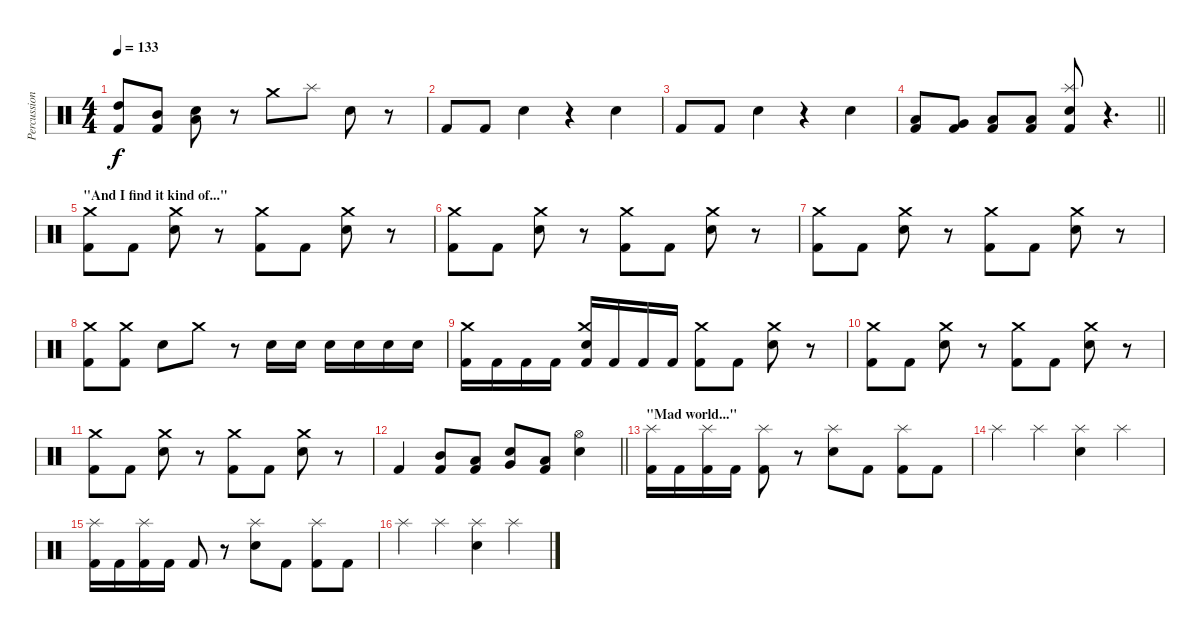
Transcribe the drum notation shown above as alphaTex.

\track ("Percussion" "Percussion") {instrument percussion}
\staff {score}
\articulation defaults
\ts (4 4)
\tempo 133
\clef neutral
\ks c
("High Tom (hit)" "Kick (hit) 2").8{dy f} ("Mid Tom (hit)" "Kick (hit) 2").8 ("Low Tom (hit)" "Electric Snare (hit)").8 r.8 "Crash medium (hit)".8 "Splash (hit)".8 "Electric Snare (hit)".8 r.8 |
"Kick (hit) 2".8 "Kick (hit) 2".8 "Electric Snare (hit)".4 r.4 "Electric Snare (hit)".4 |
"Kick (hit) 2".8 "Kick (hit) 2".8 "Electric Snare (hit)".4 r.4 "Electric Snare (hit)".4 |
\barLineRight lightlight
("Low Tom (hit)" "Kick (hit) 2").8 ("Very Low Tom (hit)" "Kick (hit) 2").8 ("Low Floor Tom (hit)" "Kick (hit) 2").8 ("Low Floor Tom (hit)" "Kick (hit) 2").8 ("Splash (hit)" "Snare (hit) 2" "Kick (hit) 2").8 r.4{d} |
\section ("" "\"And I find it kind of...\"")
("Crash medium (hit)" "Kick (hit) 2").8 "Kick (hit) 2".8 ("Crash medium (hit)" "Snare (hit) 2").8 r.8 ("Crash medium (hit)" "Kick (hit) 2").8 "Kick (hit) 2".8 ("Crash medium (hit)" "Snare (hit) 2").8 r.8 |
("Crash medium (hit)" "Kick (hit) 2").8 "Kick (hit) 2".8 ("Crash medium (hit)" "Snare (hit) 2").8 r.8 ("Crash medium (hit)" "Kick (hit) 2").8 "Kick (hit) 2".8 ("Crash medium (hit)" "Snare (hit) 2").8 r.8 |
("Crash medium (hit)" "Kick (hit) 2").8 "Kick (hit) 2".8 ("Crash medium (hit)" "Snare (hit) 2").8 r.8 ("Crash medium (hit)" "Kick (hit) 2").8 "Kick (hit) 2".8 ("Crash medium (hit)" "Snare (hit) 2").8 r.8 |
("Crash medium (hit)" "Kick (hit) 2").8 ("Crash medium (hit)" "Kick (hit) 2").8 "Snare (hit) 2".8 "Crash medium (hit)".8 r.8 "Snare (hit) 2".16 "Snare (hit) 2".16 "Snare (hit) 2".16 "Snare (hit) 2".16 "Snare (hit) 2".16 "Snare (hit) 2".16 |
("Crash medium (hit)" "Kick (hit) 2").16 "Kick (hit) 2".16 "Kick (hit) 2".16 "Kick (hit) 2".16 ("Snare (hit) 2" "Crash medium (hit)" "Kick (hit) 2").16 "Kick (hit) 2".16 "Kick (hit) 2".16 "Kick (hit) 2".16 ("Crash medium (hit)" "Kick (hit) 2").8 "Kick (hit) 2".8 ("Crash medium (hit)" "Snare (hit) 2").8 r.8 |
("Crash medium (hit)" "Kick (hit) 2").8 "Kick (hit) 2".8 ("Crash medium (hit)" "Snare (hit) 2").8 r.8 ("Crash medium (hit)" "Kick (hit) 2").8 "Kick (hit) 2".8 ("Crash medium (hit)" "Snare (hit) 2").8 r.8 |
("Crash medium (hit)" "Kick (hit) 2").8 "Kick (hit) 2".8 ("Crash medium (hit)" "Snare (hit) 2").8 r.8 ("Crash medium (hit)" "Kick (hit) 2").8 "Kick (hit) 2".8 ("Crash medium (hit)" "Snare (hit) 2").8 r.8 |
\barLineRight lightlight "Kick (hit) 2".4
("Mid Tom (hit)" "Kick (hit) 2").8 ("Low Tom (hit)" "Kick (hit) 2").8 ("Very Low Tom (hit)" "Snare (hit) 2").8 ("Low Floor Tom (hit)" "Kick (hit) 2").8 ("Hi-Hat (open)" "Snare (hit) 2").4 |
\section ("" "\"Mad world...\"")
("Splash (hit)" "Kick (hit) 2").16 "Kick (hit) 2".16 ("Splash (hit)" "Kick (hit) 2").16 "Kick (hit) 2".16 ("Splash (hit)" "Kick (hit) 2").8 r.8 ("Splash (hit)" "Snare (hit) 2").8 "Kick (hit) 2".8 ("Splash (hit)" "Kick (hit) 2").8 "Kick (hit) 2".8 |
"Splash (hit)".4 "Splash (hit)".4 ("Splash (hit)" "Snare (hit) 2").4 "Splash (hit)".4 |
("Splash (hit)" "Kick (hit) 2").16 "Kick (hit) 2".16 ("Splash (hit)" "Kick (hit) 2").16 "Kick (hit) 2".16 "Kick (hit) 2".8 r.8 ("Splash (hit)" "Snare (hit) 2").8 "Kick (hit) 2".8 ("Splash (hit)" "Kick (hit) 2").8 "Kick (hit) 2".8 |
"Splash (hit)".4 "Splash (hit)".4 ("Splash (hit)" "Snare (hit) 2").4 "Splash (hit)".4
